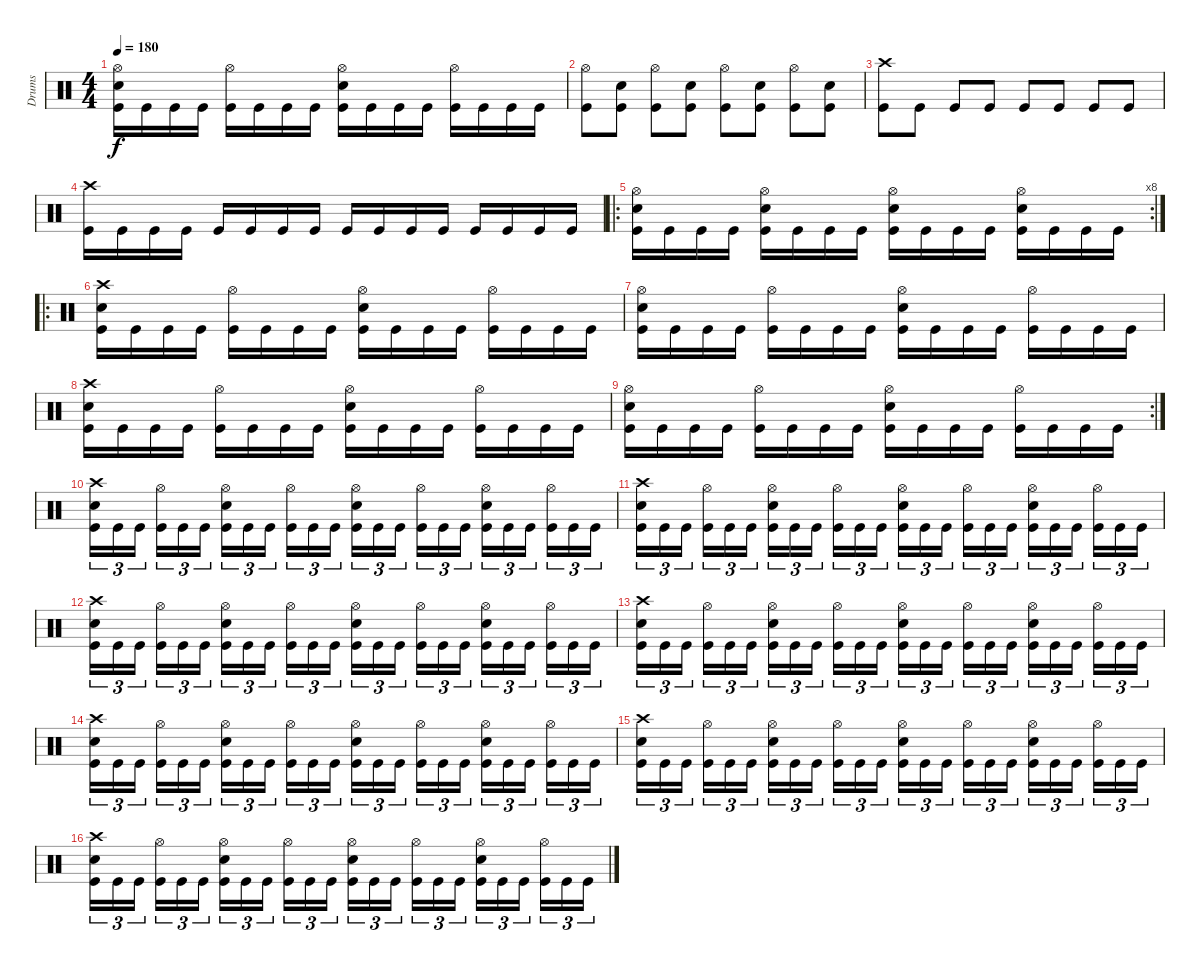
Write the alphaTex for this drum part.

\track ("Drums" "Drums") {instrument percussion}
\staff {score}
\articulation defaults
\ts (4 4)
\tempo 180
\clef neutral
\ks c
("Hi-Hat (open)" "Snare (hit) 2" "Kick (hit)").16{dy f} "Kick (hit)".16 "Kick (hit)".16 "Kick (hit)".16 ("Hi-Hat (open)" "Kick (hit)").16 "Kick (hit)".16 "Kick (hit)".16 "Kick (hit)".16 ("Hi-Hat (open)" "Snare (hit) 2" "Kick (hit)").16 "Kick (hit)".16 "Kick (hit)".16 "Kick (hit)".16 ("Hi-Hat (open)" "Kick (hit)").16 "Kick (hit)".16 "Kick (hit)".16 "Kick (hit)".16 |
("Hi-Hat (open)" "Kick (hit)").8 ("Snare (hit) 2" "Kick (hit)").8 ("Hi-Hat (open)" "Kick (hit)").8 ("Snare (hit) 2" "Kick (hit)").8 ("Hi-Hat (open)" "Kick (hit)").8 ("Snare (hit) 2" "Kick (hit)").8 ("Hi-Hat (open)" "Kick (hit)").8 ("Snare (hit) 2" "Kick (hit)").8 |
("Crash high (hit)" "Kick (hit)").8 "Kick (hit)".8 "Kick (hit)".8 "Kick (hit)".8 "Kick (hit)".8 "Kick (hit)".8 "Kick (hit)".8 "Kick (hit)".8 |
("Crash high (hit)" "Kick (hit)").16 "Kick (hit)".16 "Kick (hit)".16 "Kick (hit)".16 "Kick (hit)".16 "Kick (hit)".16 "Kick (hit)".16 "Kick (hit)".16 "Kick (hit)".16 "Kick (hit)".16 "Kick (hit)".16 "Kick (hit)".16 "Kick (hit)".16 "Kick (hit)".16 "Kick (hit)".16 "Kick (hit)".16 |
\ro
\rc 8
("Hi-Hat (open)" "Snare (hit) 2" "Kick (hit)").16 "Kick (hit)".16 "Kick (hit)".16 "Kick (hit)".16 ("Hi-Hat (open)" "Snare (hit) 2" "Kick (hit)").16 "Kick (hit)".16 "Kick (hit)".16 "Kick (hit)".16 ("Hi-Hat (open)" "Snare (hit) 2" "Kick (hit)").16 "Kick (hit)".16 "Kick (hit)".16 "Kick (hit)".16 ("Hi-Hat (open)" "Snare (hit) 2" "Kick (hit)").16 "Kick (hit)".16 "Kick (hit)".16 "Kick (hit)".16 |
\ro
("Crash high (hit)" "Snare (hit) 2" "Kick (hit)").16 "Kick (hit)".16 "Kick (hit)".16 "Kick (hit)".16 ("Hi-Hat (open)" "Kick (hit)").16 "Kick (hit)".16 "Kick (hit)".16 "Kick (hit)".16 ("Hi-Hat (open)" "Snare (hit) 2" "Kick (hit)").16 "Kick (hit)".16 "Kick (hit)".16 "Kick (hit)".16 ("Hi-Hat (open)" "Kick (hit)").16 "Kick (hit)".16 "Kick (hit)".16 "Kick (hit)".16 |
("Hi-Hat (open)" "Snare (hit) 2" "Kick (hit)").16 "Kick (hit)".16 "Kick (hit)".16 "Kick (hit)".16 ("Hi-Hat (open)" "Kick (hit)").16 "Kick (hit)".16 "Kick (hit)".16 "Kick (hit)".16 ("Hi-Hat (open)" "Snare (hit) 2" "Kick (hit)").16 "Kick (hit)".16 "Kick (hit)".16 "Kick (hit)".16 ("Hi-Hat (open)" "Kick (hit)").16 "Kick (hit)".16 "Kick (hit)".16 "Kick (hit)".16 |
("Crash high (hit)" "Snare (hit) 2" "Kick (hit)").16 "Kick (hit)".16 "Kick (hit)".16 "Kick (hit)".16 ("Hi-Hat (open)" "Kick (hit)").16 "Kick (hit)".16 "Kick (hit)".16 "Kick (hit)".16 ("Hi-Hat (open)" "Snare (hit) 2" "Kick (hit)").16 "Kick (hit)".16 "Kick (hit)".16 "Kick (hit)".16 ("Hi-Hat (open)" "Kick (hit)").16 "Kick (hit)".16 "Kick (hit)".16 "Kick (hit)".16 |
\rc 2
("Hi-Hat (open)" "Snare (hit) 2" "Kick (hit)").16 "Kick (hit)".16 "Kick (hit)".16 "Kick (hit)".16 ("Hi-Hat (open)" "Kick (hit)").16 "Kick (hit)".16 "Kick (hit)".16 "Kick (hit)".16 ("Hi-Hat (open)" "Snare (hit) 2" "Kick (hit)").16 "Kick (hit)".16 "Kick (hit)".16 "Kick (hit)".16 ("Hi-Hat (open)" "Kick (hit)").16 "Kick (hit)".16 "Kick (hit)".16 "Kick (hit)".16 |
("Crash high (hit)" "Snare (hit) 2" "Kick (hit)").16{tu (3 2)} "Kick (hit)".16{tu (3 2)} "Kick (hit)".16{tu (3 2)} ("Hi-Hat (open)" "Kick (hit)").16{tu (3 2)} "Kick (hit)".16{tu (3 2)} "Kick (hit)".16{tu (3 2)} ("Hi-Hat (open)" "Snare (hit) 2" "Kick (hit)").16{tu (3 2)} "Kick (hit)".16{tu (3 2)} "Kick (hit)".16{tu (3 2)} ("Hi-Hat (open)" "Kick (hit)").16{tu (3 2)} "Kick (hit)".16{tu (3 2)} "Kick (hit)".16{tu (3 2)} ("Hi-Hat (open)" "Snare (hit) 2" "Kick (hit)").16{tu (3 2)} "Kick (hit)".16{tu (3 2)} "Kick (hit)".16{tu (3 2)} ("Hi-Hat (open)" "Kick (hit)").16{tu (3 2)} "Kick (hit)".16{tu (3 2)} "Kick (hit)".16{tu (3 2)} ("Hi-Hat (open)" "Snare (hit) 2" "Kick (hit)").16{tu (3 2)} "Kick (hit)".16{tu (3 2)} "Kick (hit)".16{tu (3 2)} ("Hi-Hat (open)" "Kick (hit)").16{tu (3 2)} "Kick (hit)".16{tu (3 2)} "Kick (hit)".16{tu (3 2)} |
("Crash high (hit)" "Snare (hit) 2" "Kick (hit)").16{tu (3 2)} "Kick (hit)".16{tu (3 2)} "Kick (hit)".16{tu (3 2)} ("Hi-Hat (open)" "Kick (hit)").16{tu (3 2)} "Kick (hit)".16{tu (3 2)} "Kick (hit)".16{tu (3 2)} ("Hi-Hat (open)" "Snare (hit) 2" "Kick (hit)").16{tu (3 2)} "Kick (hit)".16{tu (3 2)} "Kick (hit)".16{tu (3 2)} ("Hi-Hat (open)" "Kick (hit)").16{tu (3 2)} "Kick (hit)".16{tu (3 2)} "Kick (hit)".16{tu (3 2)} ("Hi-Hat (open)" "Snare (hit) 2" "Kick (hit)").16{tu (3 2)} "Kick (hit)".16{tu (3 2)} "Kick (hit)".16{tu (3 2)} ("Hi-Hat (open)" "Kick (hit)").16{tu (3 2)} "Kick (hit)".16{tu (3 2)} "Kick (hit)".16{tu (3 2)} ("Hi-Hat (open)" "Snare (hit) 2" "Kick (hit)").16{tu (3 2)} "Kick (hit)".16{tu (3 2)} "Kick (hit)".16{tu (3 2)} ("Hi-Hat (open)" "Kick (hit)").16{tu (3 2)} "Kick (hit)".16{tu (3 2)} "Kick (hit)".16{tu (3 2)} |
("Crash high (hit)" "Snare (hit) 2" "Kick (hit)").16{tu (3 2)} "Kick (hit)".16{tu (3 2)} "Kick (hit)".16{tu (3 2)} ("Hi-Hat (open)" "Kick (hit)").16{tu (3 2)} "Kick (hit)".16{tu (3 2)} "Kick (hit)".16{tu (3 2)} ("Hi-Hat (open)" "Snare (hit) 2" "Kick (hit)").16{tu (3 2)} "Kick (hit)".16{tu (3 2)} "Kick (hit)".16{tu (3 2)} ("Hi-Hat (open)" "Kick (hit)").16{tu (3 2)} "Kick (hit)".16{tu (3 2)} "Kick (hit)".16{tu (3 2)} ("Hi-Hat (open)" "Snare (hit) 2" "Kick (hit)").16{tu (3 2)} "Kick (hit)".16{tu (3 2)} "Kick (hit)".16{tu (3 2)} ("Hi-Hat (open)" "Kick (hit)").16{tu (3 2)} "Kick (hit)".16{tu (3 2)} "Kick (hit)".16{tu (3 2)} ("Hi-Hat (open)" "Snare (hit) 2" "Kick (hit)").16{tu (3 2)} "Kick (hit)".16{tu (3 2)} "Kick (hit)".16{tu (3 2)} ("Hi-Hat (open)" "Kick (hit)").16{tu (3 2)} "Kick (hit)".16{tu (3 2)} "Kick (hit)".16{tu (3 2)} |
("Crash high (hit)" "Snare (hit) 2" "Kick (hit)").16{tu (3 2)} "Kick (hit)".16{tu (3 2)} "Kick (hit)".16{tu (3 2)} ("Hi-Hat (open)" "Kick (hit)").16{tu (3 2)} "Kick (hit)".16{tu (3 2)} "Kick (hit)".16{tu (3 2)} ("Hi-Hat (open)" "Snare (hit) 2" "Kick (hit)").16{tu (3 2)} "Kick (hit)".16{tu (3 2)} "Kick (hit)".16{tu (3 2)} ("Hi-Hat (open)" "Kick (hit)").16{tu (3 2)} "Kick (hit)".16{tu (3 2)} "Kick (hit)".16{tu (3 2)} ("Hi-Hat (open)" "Snare (hit) 2" "Kick (hit)").16{tu (3 2)} "Kick (hit)".16{tu (3 2)} "Kick (hit)".16{tu (3 2)} ("Hi-Hat (open)" "Kick (hit)").16{tu (3 2)} "Kick (hit)".16{tu (3 2)} "Kick (hit)".16{tu (3 2)} ("Hi-Hat (open)" "Snare (hit) 2" "Kick (hit)").16{tu (3 2)} "Kick (hit)".16{tu (3 2)} "Kick (hit)".16{tu (3 2)} ("Hi-Hat (open)" "Kick (hit)").16{tu (3 2)} "Kick (hit)".16{tu (3 2)} "Kick (hit)".16{tu (3 2)} |
("Crash high (hit)" "Snare (hit) 2" "Kick (hit)").16{tu (3 2)} "Kick (hit)".16{tu (3 2)} "Kick (hit)".16{tu (3 2)} ("Hi-Hat (open)" "Kick (hit)").16{tu (3 2)} "Kick (hit)".16{tu (3 2)} "Kick (hit)".16{tu (3 2)} ("Hi-Hat (open)" "Snare (hit) 2" "Kick (hit)").16{tu (3 2)} "Kick (hit)".16{tu (3 2)} "Kick (hit)".16{tu (3 2)} ("Hi-Hat (open)" "Kick (hit)").16{tu (3 2)} "Kick (hit)".16{tu (3 2)} "Kick (hit)".16{tu (3 2)} ("Hi-Hat (open)" "Snare (hit) 2" "Kick (hit)").16{tu (3 2)} "Kick (hit)".16{tu (3 2)} "Kick (hit)".16{tu (3 2)} ("Hi-Hat (open)" "Kick (hit)").16{tu (3 2)} "Kick (hit)".16{tu (3 2)} "Kick (hit)".16{tu (3 2)} ("Hi-Hat (open)" "Snare (hit) 2" "Kick (hit)").16{tu (3 2)} "Kick (hit)".16{tu (3 2)} "Kick (hit)".16{tu (3 2)} ("Hi-Hat (open)" "Kick (hit)").16{tu (3 2)} "Kick (hit)".16{tu (3 2)} "Kick (hit)".16{tu (3 2)} |
("Crash high (hit)" "Snare (hit) 2" "Kick (hit)").16{tu (3 2)} "Kick (hit)".16{tu (3 2)} "Kick (hit)".16{tu (3 2)} ("Hi-Hat (open)" "Kick (hit)").16{tu (3 2)} "Kick (hit)".16{tu (3 2)} "Kick (hit)".16{tu (3 2)} ("Hi-Hat (open)" "Snare (hit) 2" "Kick (hit)").16{tu (3 2)} "Kick (hit)".16{tu (3 2)} "Kick (hit)".16{tu (3 2)} ("Hi-Hat (open)" "Kick (hit)").16{tu (3 2)} "Kick (hit)".16{tu (3 2)} "Kick (hit)".16{tu (3 2)} ("Hi-Hat (open)" "Snare (hit) 2" "Kick (hit)").16{tu (3 2)} "Kick (hit)".16{tu (3 2)} "Kick (hit)".16{tu (3 2)} ("Hi-Hat (open)" "Kick (hit)").16{tu (3 2)} "Kick (hit)".16{tu (3 2)} "Kick (hit)".16{tu (3 2)} ("Hi-Hat (open)" "Snare (hit) 2" "Kick (hit)").16{tu (3 2)} "Kick (hit)".16{tu (3 2)} "Kick (hit)".16{tu (3 2)} ("Hi-Hat (open)" "Kick (hit)").16{tu (3 2)} "Kick (hit)".16{tu (3 2)} "Kick (hit)".16{tu (3 2)} |
("Crash high (hit)" "Snare (hit) 2" "Kick (hit)").16{tu (3 2)} "Kick (hit)".16{tu (3 2)} "Kick (hit)".16{tu (3 2)} ("Hi-Hat (open)" "Kick (hit)").16{tu (3 2)} "Kick (hit)".16{tu (3 2)} "Kick (hit)".16{tu (3 2)} ("Hi-Hat (open)" "Snare (hit) 2" "Kick (hit)").16{tu (3 2)} "Kick (hit)".16{tu (3 2)} "Kick (hit)".16{tu (3 2)} ("Hi-Hat (open)" "Kick (hit)").16{tu (3 2)} "Kick (hit)".16{tu (3 2)} "Kick (hit)".16{tu (3 2)} ("Hi-Hat (open)" "Snare (hit) 2" "Kick (hit)").16{tu (3 2)} "Kick (hit)".16{tu (3 2)} "Kick (hit)".16{tu (3 2)} ("Hi-Hat (open)" "Kick (hit)").16{tu (3 2)} "Kick (hit)".16{tu (3 2)} "Kick (hit)".16{tu (3 2)} ("Hi-Hat (open)" "Snare (hit) 2" "Kick (hit)").16{tu (3 2)} "Kick (hit)".16{tu (3 2)} "Kick (hit)".16{tu (3 2)} ("Hi-Hat (open)" "Kick (hit)").16{tu (3 2)} "Kick (hit)".16{tu (3 2)} "Kick (hit)".16{tu (3 2)}
